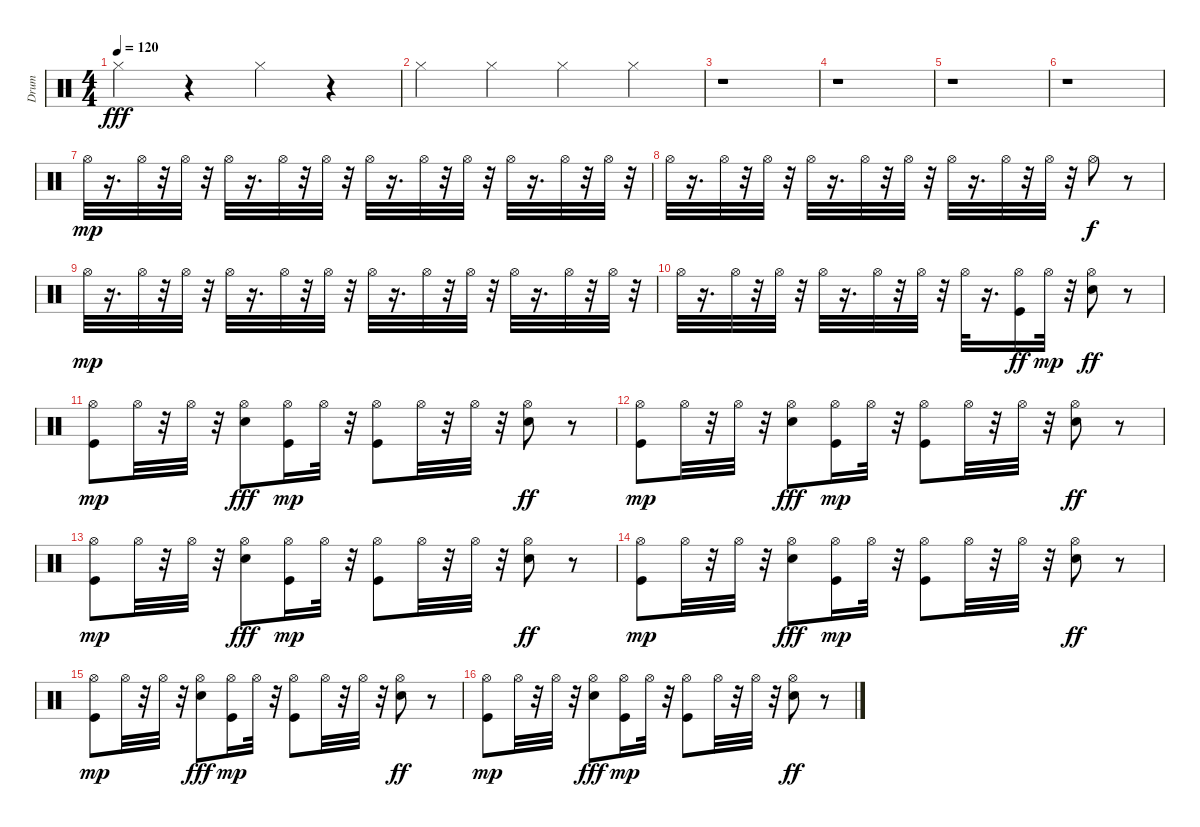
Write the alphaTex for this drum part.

\track ("Drum" "Drum") {instrument percussion}
\staff {score}
\articulation defaults
\ts (4 4)
\tempo 120
\clef neutral
\ks c "Hi-Hat (closed)".4{dy fff}
r.4 "Hi-Hat (closed)".4 r.4 |
"Hi-Hat (closed)".4 "Hi-Hat (closed)".4 "Hi-Hat (closed)".4 "Hi-Hat (closed)".4 |
r.1 |
r.1 |
r.1 |
r.1 |
"Hi-Hat (open)".32{dy mp} r.16{d} "Hi-Hat (open)".32 r.32 "Hi-Hat (open)".32 r.32 "Hi-Hat (open)".32 r.16{d} "Hi-Hat (open)".32 r.32 "Hi-Hat (open)".32 r.32 "Hi-Hat (open)".32 r.16{d} "Hi-Hat (open)".32 r.32 "Hi-Hat (open)".32 r.32 "Hi-Hat (open)".32 r.16{d} "Hi-Hat (open)".32 r.32 "Hi-Hat (open)".32 r.32 |
"Hi-Hat (open)".32 r.16{d} "Hi-Hat (open)".32 r.32 "Hi-Hat (open)".32 r.32 "Hi-Hat (open)".32 r.16{d} "Hi-Hat (open)".32 r.32 "Hi-Hat (open)".32 r.32 "Hi-Hat (open)".32 r.16{d} "Hi-Hat (open)".32 r.32 "Hi-Hat (open)".32 r.32 "Hi-Hat (open)".8{dy f} r.8 |
"Hi-Hat (open)".32{dy mp} r.16{d} "Hi-Hat (open)".32 r.32 "Hi-Hat (open)".32 r.32 "Hi-Hat (open)".32 r.16{d} "Hi-Hat (open)".32 r.32 "Hi-Hat (open)".32 r.32 "Hi-Hat (open)".32 r.16{d} "Hi-Hat (open)".32 r.32 "Hi-Hat (open)".32 r.32 "Hi-Hat (open)".32 r.16{d} "Hi-Hat (open)".32 r.32 "Hi-Hat (open)".32 r.32 |
"Hi-Hat (open)".32 r.16{d} "Hi-Hat (open)".32 r.32 "Hi-Hat (open)".32 r.32 "Hi-Hat (open)".32 r.16{d} "Hi-Hat (open)".32 r.32 "Hi-Hat (open)".32 r.32 "Hi-Hat (open)".32 r.16{d} ("Hi-Hat (open)" "Kick (hit)").16{dy ff} "Hi-Hat (open)".32{dy mp} r.32 ("Snare (hit) 2" "Hi-Hat (open)").8{dy ff} r.8 |
("Kick (hit)" "Hi-Hat (open)").8{dy mp} "Hi-Hat (open)".32 r.32 "Hi-Hat (open)".32 r.32 ("Hi-Hat (open)" "Snare (hit) 2").8{dy fff} ("Kick (hit)" "Hi-Hat (open)").16{dy mp} "Hi-Hat (open)".32 r.32 ("Kick (hit)" "Hi-Hat (open)").8 "Hi-Hat (open)".32 r.32 "Hi-Hat (open)".32 r.32 ("Snare (hit) 2" "Hi-Hat (open)").8{dy ff} r.8 |
("Kick (hit)" "Hi-Hat (open)").8{dy mp} "Hi-Hat (open)".32 r.32 "Hi-Hat (open)".32 r.32 ("Hi-Hat (open)" "Snare (hit) 2").8{dy fff} ("Kick (hit)" "Hi-Hat (open)").16{dy mp} "Hi-Hat (open)".32 r.32 ("Kick (hit)" "Hi-Hat (open)").8 "Hi-Hat (open)".32 r.32 "Hi-Hat (open)".32 r.32 ("Snare (hit) 2" "Hi-Hat (open)").8{dy ff} r.8 |
("Kick (hit)" "Hi-Hat (open)").8{dy mp} "Hi-Hat (open)".32 r.32 "Hi-Hat (open)".32 r.32 ("Hi-Hat (open)" "Snare (hit) 2").8{dy fff} ("Kick (hit)" "Hi-Hat (open)").16{dy mp} "Hi-Hat (open)".32 r.32 ("Kick (hit)" "Hi-Hat (open)").8 "Hi-Hat (open)".32 r.32 "Hi-Hat (open)".32 r.32 ("Snare (hit) 2" "Hi-Hat (open)").8{dy ff} r.8 |
("Kick (hit)" "Hi-Hat (open)").8{dy mp} "Hi-Hat (open)".32 r.32 "Hi-Hat (open)".32 r.32 ("Hi-Hat (open)" "Snare (hit) 2").8{dy fff} ("Kick (hit)" "Hi-Hat (open)").16{dy mp} "Hi-Hat (open)".32 r.32 ("Kick (hit)" "Hi-Hat (open)").8 "Hi-Hat (open)".32 r.32 "Hi-Hat (open)".32 r.32 ("Snare (hit) 2" "Hi-Hat (open)").8{dy ff} r.8 |
("Kick (hit)" "Hi-Hat (open)").8{dy mp} "Hi-Hat (open)".32 r.32 "Hi-Hat (open)".32 r.32 ("Hi-Hat (open)" "Snare (hit) 2").8{dy fff} ("Kick (hit)" "Hi-Hat (open)").16{dy mp} "Hi-Hat (open)".32 r.32 ("Kick (hit)" "Hi-Hat (open)").8 "Hi-Hat (open)".32 r.32 "Hi-Hat (open)".32 r.32 ("Snare (hit) 2" "Hi-Hat (open)").8{dy ff} r.8 |
("Kick (hit)" "Hi-Hat (open)").8{dy mp} "Hi-Hat (open)".32 r.32 "Hi-Hat (open)".32 r.32 ("Hi-Hat (open)" "Snare (hit) 2").8{dy fff} ("Kick (hit)" "Hi-Hat (open)").16{dy mp} "Hi-Hat (open)".32 r.32 ("Kick (hit)" "Hi-Hat (open)").8 "Hi-Hat (open)".32 r.32 "Hi-Hat (open)".32 r.32 ("Snare (hit) 2" "Hi-Hat (open)").8{dy ff} r.8
